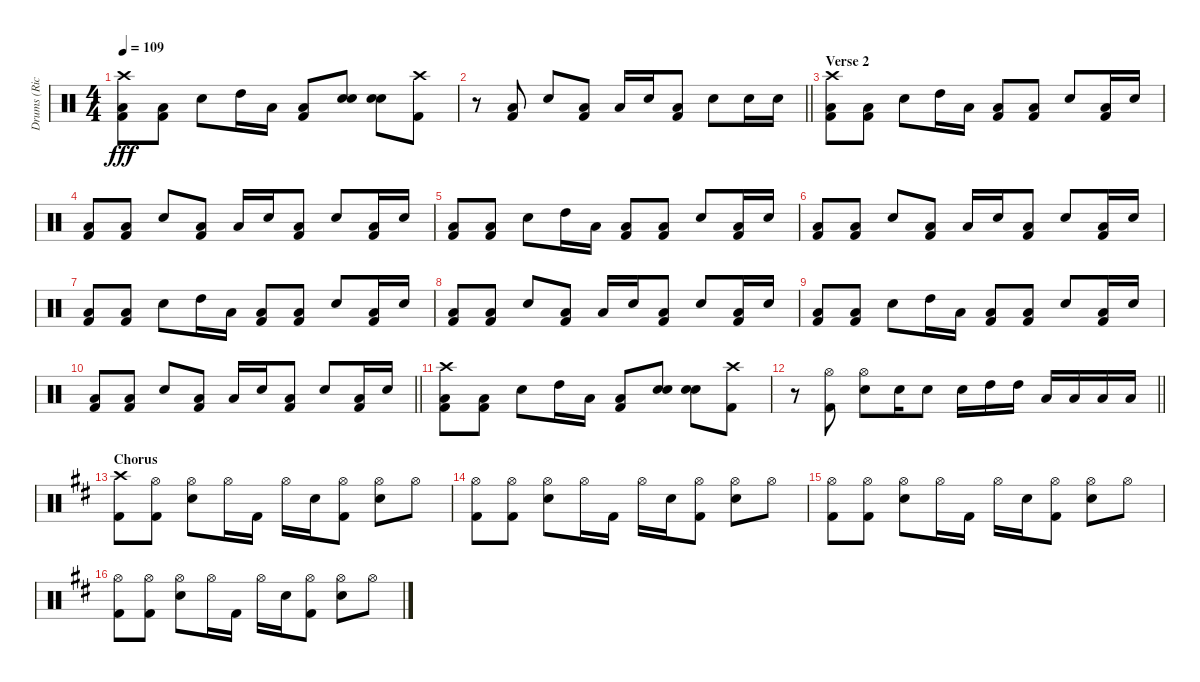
\track ("Drums (Rick McMurray)" "Drums (Ric") {instrument percussion}
\staff {score}
\articulation defaults
\ts (4 4)
\tempo 109
\clef neutral
\ks c
("Crash high (hit)" "Low Floor Tom (hit)" "Kick (hit) 2").8{dy fff} ("Low Floor Tom (hit)" "Kick (hit) 2").8 "Snare (hit) 2".8 "High Tom (hit)".16 "Low Tom (hit)".16 ("Low Floor Tom (hit)" "Kick (hit) 2").8 ("Electric Snare (hit)" "Snare (hit) 2").8{bd 120} ("Electric Snare (hit)" "Snare (hit) 2").8{bd 120} ("Crash high (hit)" "Kick (hit) 2").8 |
\barLineRight lightlight
r.8 ("Low Floor Tom (hit)" "Kick (hit) 2").8 "Snare (hit) 2".8 ("Low Floor Tom (hit)" "Kick (hit) 2").8 "Low Floor Tom (hit)".16 "Snare (hit) 2".16 ("Low Floor Tom (hit)" "Kick (hit) 2").8 "Snare (hit) 2".8 "Snare (hit) 2".16 "Snare (hit) 2".16 |
\section ("" "Verse 2")
("Crash high (hit)" "Low Floor Tom (hit)" "Kick (hit) 2").8 ("Low Floor Tom (hit)" "Kick (hit) 2").8 "Snare (hit) 2".8 "High Tom (hit)".16 "Low Tom (hit)".16 ("Low Floor Tom (hit)" "Kick (hit) 2").8 ("Low Floor Tom (hit)" "Kick (hit) 2").8 "Snare (hit) 2".8 ("Low Floor Tom (hit)" "Kick (hit) 2").16 "Snare (hit) 2".16 |
("Low Floor Tom (hit)" "Kick (hit) 2").8 ("Low Floor Tom (hit)" "Kick (hit) 2").8 "Snare (hit) 2".8 ("Low Floor Tom (hit)" "Kick (hit) 2").8 "Low Floor Tom (hit)".16 "Snare (hit) 2".16 ("Low Floor Tom (hit)" "Kick (hit) 2").8 "Snare (hit) 2".8 ("Kick (hit) 2" "Low Floor Tom (hit)").16 "Snare (hit) 2".16 |
("Low Floor Tom (hit)" "Kick (hit) 2").8 ("Low Floor Tom (hit)" "Kick (hit) 2").8 "Snare (hit) 2".8 "High Tom (hit)".16 "Low Tom (hit)".16 ("Low Floor Tom (hit)" "Kick (hit) 2").8 ("Low Floor Tom (hit)" "Kick (hit) 2").8 "Snare (hit) 2".8 ("Low Floor Tom (hit)" "Kick (hit) 2").16 "Snare (hit) 2".16 |
("Low Floor Tom (hit)" "Kick (hit) 2").8 ("Low Floor Tom (hit)" "Kick (hit) 2").8 "Snare (hit) 2".8 ("Low Floor Tom (hit)" "Kick (hit) 2").8 "Low Floor Tom (hit)".16 "Snare (hit) 2".16 ("Low Floor Tom (hit)" "Kick (hit) 2").8 "Snare (hit) 2".8 ("Kick (hit) 2" "Low Floor Tom (hit)").16 "Snare (hit) 2".16 |
("Low Floor Tom (hit)" "Kick (hit) 2").8 ("Low Floor Tom (hit)" "Kick (hit) 2").8 "Snare (hit) 2".8 "High Tom (hit)".16 "Low Tom (hit)".16 ("Low Floor Tom (hit)" "Kick (hit) 2").8 ("Low Floor Tom (hit)" "Kick (hit) 2").8 "Snare (hit) 2".8 ("Low Floor Tom (hit)" "Kick (hit) 2").16 "Snare (hit) 2".16 |
("Low Floor Tom (hit)" "Kick (hit) 2").8 ("Low Floor Tom (hit)" "Kick (hit) 2").8 "Snare (hit) 2".8 ("Low Floor Tom (hit)" "Kick (hit) 2").8 "Low Floor Tom (hit)".16 "Snare (hit) 2".16 ("Low Floor Tom (hit)" "Kick (hit) 2").8 "Snare (hit) 2".8 ("Kick (hit) 2" "Low Floor Tom (hit)").16 "Snare (hit) 2".16 |
("Low Floor Tom (hit)" "Kick (hit) 2").8 ("Low Floor Tom (hit)" "Kick (hit) 2").8 "Snare (hit) 2".8 "High Tom (hit)".16 "Low Tom (hit)".16 ("Low Floor Tom (hit)" "Kick (hit) 2").8 ("Low Floor Tom (hit)" "Kick (hit) 2").8 "Snare (hit) 2".8 ("Low Floor Tom (hit)" "Kick (hit) 2").16 "Snare (hit) 2".16 |
\barLineRight lightlight
("Low Floor Tom (hit)" "Kick (hit) 2").8 ("Low Floor Tom (hit)" "Kick (hit) 2").8 "Snare (hit) 2".8 ("Low Floor Tom (hit)" "Kick (hit) 2").8 "Low Floor Tom (hit)".16 "Snare (hit) 2".16 ("Low Floor Tom (hit)" "Kick (hit) 2").8 "Snare (hit) 2".8 ("Kick (hit) 2" "Low Floor Tom (hit)").16 "Snare (hit) 2".16 |
("Crash high (hit)" "Low Floor Tom (hit)" "Kick (hit) 2").8 ("Low Floor Tom (hit)" "Kick (hit) 2").8 "Snare (hit) 2".8 "High Tom (hit)".16 "Low Tom (hit)".16 ("Low Floor Tom (hit)" "Kick (hit) 2").8 ("Electric Snare (hit)" "Snare (hit) 2").8{bd 120} ("Electric Snare (hit)" "Snare (hit) 2").8{bd 120} ("Crash high (hit)" "Kick (hit) 2").8 |
\barLineRight lightlight
r.8 ("Hi-Hat (open)" "Kick (hit) 2").8 ("Hi-Hat (open)" "Snare (hit) 2").8 "Snare (hit) 2".16 "Snare (hit) 2".8 "Snare (hit) 2".16 "High Tom (hit)".16 "High Tom (hit)".16 "Low Tom (hit)".16 "Low Tom (hit)".16 "Low Floor Tom (hit)".16 "Low Floor Tom (hit)".16 |
\section ("" "Chorus")
\ks d
("Crash high (hit)" "Kick (hit) 2").8 ("Hi-Hat (open)" "Kick (hit) 2").8 ("Hi-Hat (open)" "Snare (hit) 2").8 "Hi-Hat (open)".16 "Kick (hit) 2".16 "Hi-Hat (open)".16 "Snare (hit) 2".16 ("Hi-Hat (open)" "Kick (hit) 2").8 ("Hi-Hat (open)" "Snare (hit) 2").8 "Hi-Hat (open)".8 |
("Hi-Hat (open)" "Kick (hit) 2").8 ("Hi-Hat (open)" "Kick (hit) 2").8 ("Hi-Hat (open)" "Snare (hit) 2").8 "Hi-Hat (open)".16 "Kick (hit) 2".16 "Hi-Hat (open)".16 "Snare (hit) 2".16 ("Hi-Hat (open)" "Kick (hit) 2").8 ("Hi-Hat (open)" "Snare (hit) 2").8 "Hi-Hat (open)".8 |
("Hi-Hat (open)" "Kick (hit) 2").8 ("Hi-Hat (open)" "Kick (hit) 2").8 ("Hi-Hat (open)" "Snare (hit) 2").8 "Hi-Hat (open)".16 "Kick (hit) 2".16 "Hi-Hat (open)".16 "Snare (hit) 2".16 ("Hi-Hat (open)" "Kick (hit) 2").8 ("Hi-Hat (open)" "Snare (hit) 2").8 "Hi-Hat (open)".8 |
("Hi-Hat (open)" "Kick (hit) 2").8 ("Hi-Hat (open)" "Kick (hit) 2").8 ("Hi-Hat (open)" "Snare (hit) 2").8 "Hi-Hat (open)".16 "Kick (hit) 2".16 "Hi-Hat (open)".16 "Snare (hit) 2".16 ("Hi-Hat (open)" "Kick (hit) 2").8 ("Hi-Hat (open)" "Snare (hit) 2").8 "Hi-Hat (open)".8
